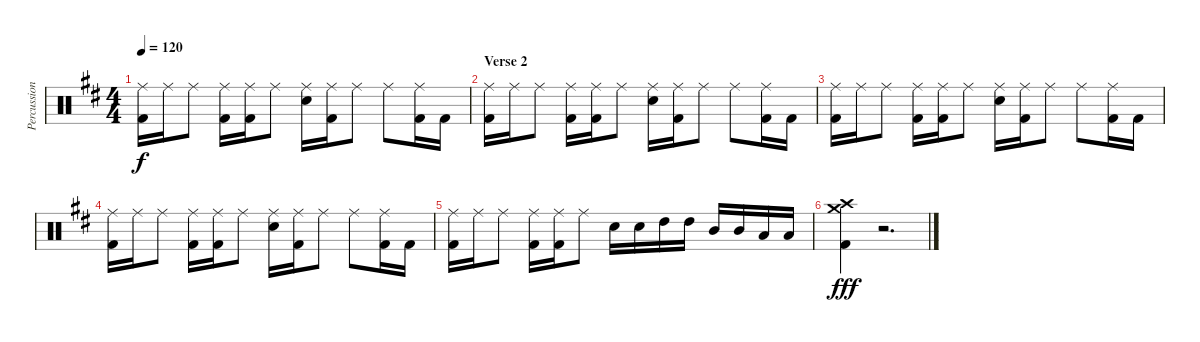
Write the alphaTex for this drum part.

\track ("Percussion" "Percussion") {instrument percussion}
\staff {score}
\articulation defaults
\ts (4 4)
\tempo 120
\clef neutral
\ks d
("Ride (middle)" "Kick (hit) 2").16{dy f} "Ride (middle)".16 "Ride (middle)".8 ("Ride (middle)" "Kick (hit) 2").16 ("Ride (middle)" "Kick (hit) 2").16 "Ride (middle)".8 ("Ride (middle)" "Snare (hit) 2").16 ("Ride (middle)" "Kick (hit) 2").16 "Ride (middle)".8 "Ride (middle)".8 ("Ride (middle)" "Kick (hit) 2").16 "Kick (hit) 2".16 |
\section ("" "Verse 2")
("Ride (middle)" "Kick (hit) 2").16 "Ride (middle)".16 "Ride (middle)".8 ("Ride (middle)" "Kick (hit) 2").16 ("Ride (middle)" "Kick (hit) 2").16 "Ride (middle)".8 ("Ride (middle)" "Snare (hit) 2").16 ("Ride (middle)" "Kick (hit) 2").16 "Ride (middle)".8 "Ride (middle)".8 ("Ride (middle)" "Kick (hit) 2").16 "Kick (hit) 2".16 |
("Ride (middle)" "Kick (hit) 2").16 "Ride (middle)".16 "Ride (middle)".8 ("Ride (middle)" "Kick (hit) 2").16 ("Ride (middle)" "Kick (hit) 2").16 "Ride (middle)".8 ("Ride (middle)" "Snare (hit) 2").16 ("Ride (middle)" "Kick (hit) 2").16 "Ride (middle)".8 "Ride (middle)".8 ("Ride (middle)" "Kick (hit) 2").16 "Kick (hit) 2".16 |
("Ride (middle)" "Kick (hit) 2").16 "Ride (middle)".16 "Ride (middle)".8 ("Ride (middle)" "Kick (hit) 2").16 ("Ride (middle)" "Kick (hit) 2").16 "Ride (middle)".8 ("Ride (middle)" "Snare (hit) 2").16 ("Ride (middle)" "Kick (hit) 2").16 "Ride (middle)".8 "Ride (middle)".8 ("Ride (middle)" "Kick (hit) 2").16 "Kick (hit) 2".16 |
("Ride (middle)" "Kick (hit) 2").16 "Ride (middle)".16 "Ride (middle)".8 ("Ride (middle)" "Kick (hit) 2").16 ("Ride (middle)" "Kick (hit) 2").16 "Ride (middle)".8 "Snare (hit) 2".16 "Snare (hit) 2".16 "High Tom (hit)".16 "High Tom (hit)".16 "Mid Tom (hit)".16 "Mid Tom (hit)".16 "Low Tom (hit)".16 "Low Tom (hit)".16 |
("Crash medium (hit)" "Crash high (hit)" "Kick (hit) 2").4{dy fff} r.2{d}
